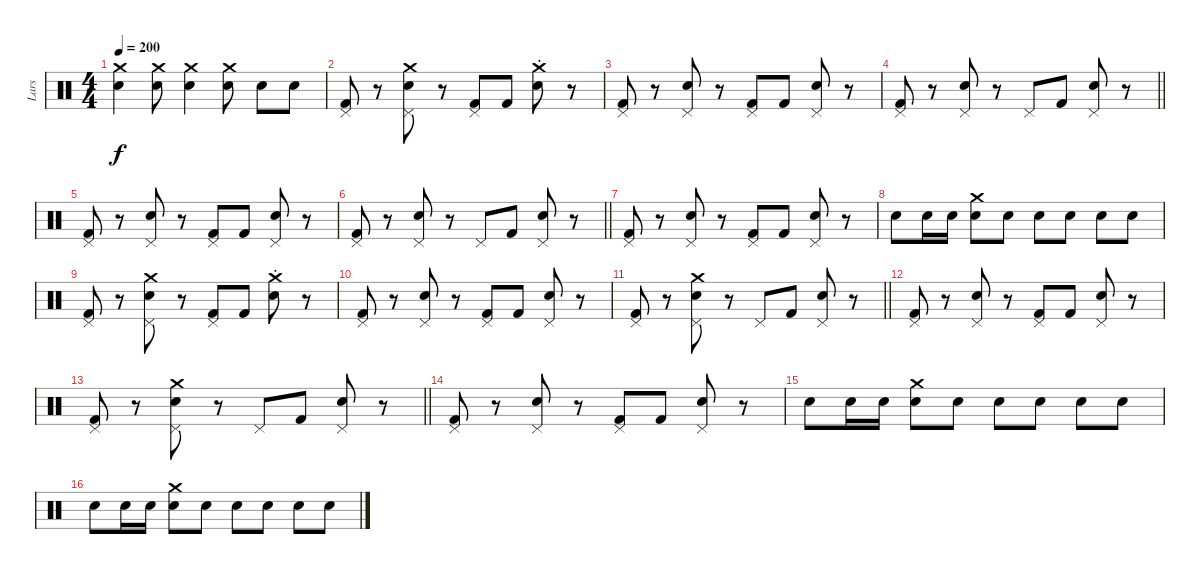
\track ("Lars" "Lars") {instrument percussion}
\staff {score}
\articulation defaults
\ts (4 4)
\tempo 200
\clef neutral
\ks c
("Crash medium (hit)" "Snare (hit) 2").4{dy f} ("Crash medium (hit)" "Snare (hit) 2").8 ("Crash medium (hit)" "Snare (hit) 2").4 ("Crash medium (hit)" "Snare (hit) 2").8 "Snare (hit) 2".8 "Snare (hit) 2".8 |
("Pedal Hi-Hat (hit)" "Kick (hit) 2").8 r.8 ("Crash medium (hit)" "Pedal Hi-Hat (hit)" "Snare (hit) 2").8 r.8 ("Pedal Hi-Hat (hit)" "Kick (hit) 2").8 "Kick (hit) 2".8 ("Crash medium (hit)"{st} "Snare (hit) 2").8 r.8 |
("Pedal Hi-Hat (hit)" "Kick (hit) 2").8 r.8 ("Pedal Hi-Hat (hit)" "Snare (hit) 2").8 r.8 ("Pedal Hi-Hat (hit)" "Kick (hit) 2").8 "Kick (hit) 2".8 ("Pedal Hi-Hat (hit)" "Snare (hit) 2").8 r.8 |
\barLineRight lightlight
("Pedal Hi-Hat (hit)" "Kick (hit) 2").8 r.8 ("Pedal Hi-Hat (hit)" "Snare (hit) 2").8 r.8 "Pedal Hi-Hat (hit)".8 "Kick (hit) 2".8 ("Pedal Hi-Hat (hit)" "Snare (hit) 2").8 r.8 |
("Pedal Hi-Hat (hit)" "Kick (hit) 2").8 r.8 ("Pedal Hi-Hat (hit)" "Snare (hit) 2").8 r.8 ("Pedal Hi-Hat (hit)" "Kick (hit) 2").8 "Kick (hit) 2".8 ("Pedal Hi-Hat (hit)" "Snare (hit) 2").8 r.8 |
\barLineRight lightlight
("Pedal Hi-Hat (hit)" "Kick (hit) 2").8 r.8 ("Pedal Hi-Hat (hit)" "Snare (hit) 2").8 r.8 "Pedal Hi-Hat (hit)".8 "Kick (hit) 2".8 ("Pedal Hi-Hat (hit)" "Snare (hit) 2").8 r.8 |
("Pedal Hi-Hat (hit)" "Kick (hit) 2").8 r.8 ("Pedal Hi-Hat (hit)" "Snare (hit) 2").8 r.8 ("Pedal Hi-Hat (hit)" "Kick (hit) 2").8 "Kick (hit) 2".8 ("Pedal Hi-Hat (hit)" "Snare (hit) 2").8 r.8 |
"Snare (hit) 2".8 "Snare (hit) 2".16 "Snare (hit) 2".16 ("Crash medium (hit)" "Snare (hit) 2").8 "Snare (hit) 2".8 "Snare (hit) 2".8 "Snare (hit) 2".8 "Snare (hit) 2".8 "Snare (hit) 2".8 |
("Pedal Hi-Hat (hit)" "Kick (hit) 2").8 r.8 ("Crash medium (hit)" "Pedal Hi-Hat (hit)" "Snare (hit) 2").8 r.8 ("Pedal Hi-Hat (hit)" "Kick (hit) 2").8 "Kick (hit) 2".8 ("Crash medium (hit)"{st} "Snare (hit) 2").8 r.8 |
("Pedal Hi-Hat (hit)" "Kick (hit) 2").8 r.8 ("Pedal Hi-Hat (hit)" "Snare (hit) 2").8 r.8 ("Pedal Hi-Hat (hit)" "Kick (hit) 2").8 "Kick (hit) 2".8 ("Pedal Hi-Hat (hit)" "Snare (hit) 2").8 r.8 |
\barLineRight lightlight
("Pedal Hi-Hat (hit)" "Kick (hit) 2").8 r.8 ("Crash medium (hit)" "Pedal Hi-Hat (hit)" "Snare (hit) 2").8 r.8 "Pedal Hi-Hat (hit)".8 "Kick (hit) 2".8 ("Pedal Hi-Hat (hit)" "Snare (hit) 2").8 r.8 |
("Pedal Hi-Hat (hit)" "Kick (hit) 2").8 r.8 ("Pedal Hi-Hat (hit)" "Snare (hit) 2").8 r.8 ("Pedal Hi-Hat (hit)" "Kick (hit) 2").8 "Kick (hit) 2".8 ("Pedal Hi-Hat (hit)" "Snare (hit) 2").8 r.8 |
\barLineRight lightlight
("Pedal Hi-Hat (hit)" "Kick (hit) 2").8 r.8 ("Crash medium (hit)" "Pedal Hi-Hat (hit)" "Snare (hit) 2").8 r.8 "Pedal Hi-Hat (hit)".8 "Kick (hit) 2".8 ("Pedal Hi-Hat (hit)" "Snare (hit) 2").8 r.8 |
("Pedal Hi-Hat (hit)" "Kick (hit) 2").8 r.8 ("Pedal Hi-Hat (hit)" "Snare (hit) 2").8 r.8 ("Pedal Hi-Hat (hit)" "Kick (hit) 2").8 "Kick (hit) 2".8 ("Pedal Hi-Hat (hit)" "Snare (hit) 2").8 r.8 |
"Snare (hit) 2".8 "Snare (hit) 2".16 "Snare (hit) 2".16 ("Crash medium (hit)" "Snare (hit) 2").8 "Snare (hit) 2".8 "Snare (hit) 2".8 "Snare (hit) 2".8 "Snare (hit) 2".8 "Snare (hit) 2".8 |
"Snare (hit) 2".8 "Snare (hit) 2".16 "Snare (hit) 2".16 ("Crash medium (hit)" "Snare (hit) 2").8 "Snare (hit) 2".8 "Snare (hit) 2".8 "Snare (hit) 2".8 "Snare (hit) 2".8 "Snare (hit) 2".8
